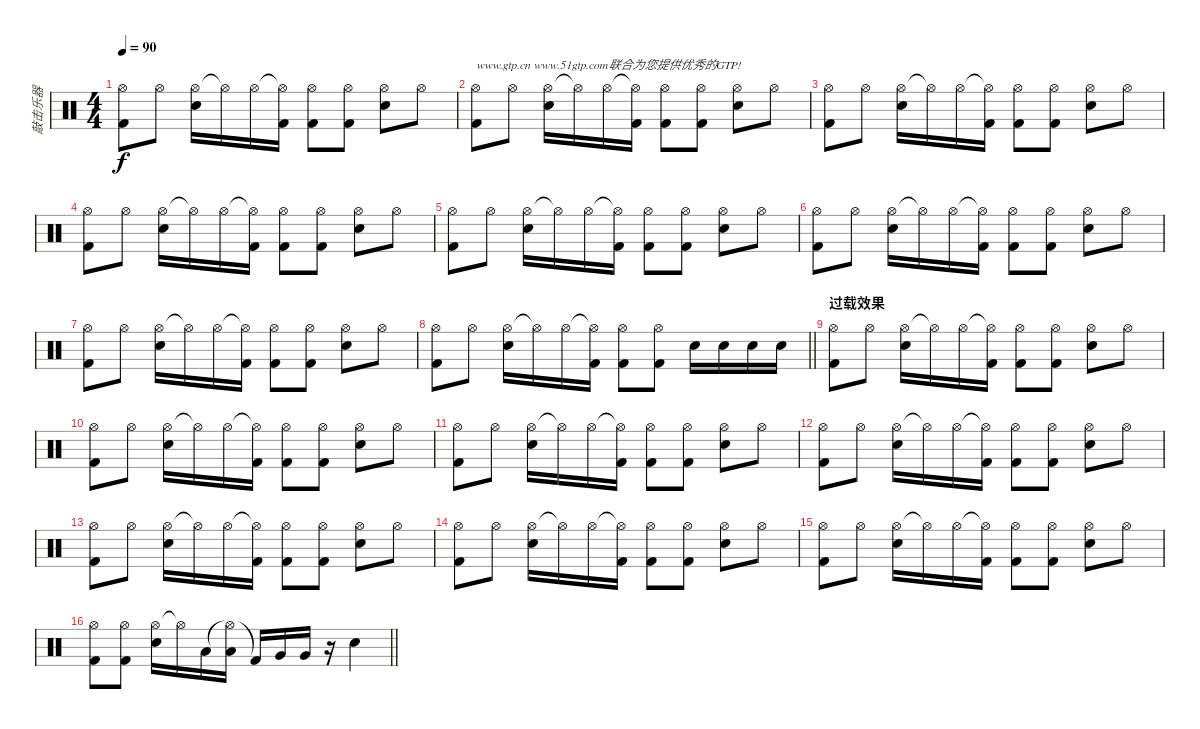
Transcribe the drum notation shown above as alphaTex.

\track ("敲击乐器" "敲击乐器") {instrument percussion}
\staff {score}
\articulation defaults
\ts (4 4)
\tempo 90
\clef neutral
\ks c
("Hi-Hat (open)" "Kick (hit) 2").8{dy f} "Hi-Hat (open)".8 ("Hi-Hat (open)" "Electric Snare (hit)").16 "Hi-Hat (open)"{t}.16 "Hi-Hat (open)".16 ("Hi-Hat (open)"{t} "Kick (hit) 2").16 ("Hi-Hat (open)" "Kick (hit) 2").8 ("Hi-Hat (open)" "Kick (hit) 2").8 ("Hi-Hat (open)" "Electric Snare (hit)").8 "Hi-Hat (open)".8 |
("Hi-Hat (open)" "Kick (hit) 2").8{txt "www.gtp.cn www.51gtp.com联合为您提供优秀的GTP!"} "Hi-Hat (open)".8 ("Hi-Hat (open)" "Electric Snare (hit)").16 "Hi-Hat (open)"{t}.16 "Hi-Hat (open)".16 ("Hi-Hat (open)"{t} "Kick (hit) 2").16 ("Hi-Hat (open)" "Kick (hit) 2").8 ("Hi-Hat (open)" "Kick (hit) 2").8 ("Hi-Hat (open)" "Electric Snare (hit)").8 "Hi-Hat (open)".8 |
("Hi-Hat (open)" "Kick (hit) 2").8 "Hi-Hat (open)".8 ("Hi-Hat (open)" "Electric Snare (hit)").16 "Hi-Hat (open)"{t}.16 "Hi-Hat (open)".16 ("Hi-Hat (open)"{t} "Kick (hit) 2").16 ("Hi-Hat (open)" "Kick (hit) 2").8 ("Hi-Hat (open)" "Kick (hit) 2").8 ("Hi-Hat (open)" "Electric Snare (hit)").8 "Hi-Hat (open)".8 |
("Hi-Hat (open)" "Kick (hit) 2").8 "Hi-Hat (open)".8 ("Hi-Hat (open)" "Electric Snare (hit)").16 "Hi-Hat (open)"{t}.16 "Hi-Hat (open)".16 ("Hi-Hat (open)"{t} "Kick (hit) 2").16 ("Hi-Hat (open)" "Kick (hit) 2").8 ("Hi-Hat (open)" "Kick (hit) 2").8 ("Hi-Hat (open)" "Electric Snare (hit)").8 "Hi-Hat (open)".8 |
("Hi-Hat (open)" "Kick (hit) 2").8 "Hi-Hat (open)".8 ("Hi-Hat (open)" "Electric Snare (hit)").16 "Hi-Hat (open)"{t}.16 "Hi-Hat (open)".16 ("Hi-Hat (open)"{t} "Kick (hit) 2").16 ("Hi-Hat (open)" "Kick (hit) 2").8 ("Hi-Hat (open)" "Kick (hit) 2").8 ("Hi-Hat (open)" "Electric Snare (hit)").8 "Hi-Hat (open)".8 |
("Hi-Hat (open)" "Kick (hit) 2").8 "Hi-Hat (open)".8 ("Hi-Hat (open)" "Electric Snare (hit)").16 "Hi-Hat (open)"{t}.16 "Hi-Hat (open)".16 ("Hi-Hat (open)"{t} "Kick (hit) 2").16 ("Hi-Hat (open)" "Kick (hit) 2").8 ("Hi-Hat (open)" "Kick (hit) 2").8 ("Hi-Hat (open)" "Electric Snare (hit)").8 "Hi-Hat (open)".8 |
("Hi-Hat (open)" "Kick (hit) 2").8 "Hi-Hat (open)".8 ("Hi-Hat (open)" "Electric Snare (hit)").16 "Hi-Hat (open)"{t}.16 "Hi-Hat (open)".16 ("Hi-Hat (open)"{t} "Kick (hit) 2").16 ("Hi-Hat (open)" "Kick (hit) 2").8 ("Hi-Hat (open)" "Kick (hit) 2").8 ("Hi-Hat (open)" "Electric Snare (hit)").8 "Hi-Hat (open)".8 |
\barLineRight lightlight
("Hi-Hat (open)" "Kick (hit) 2").8 "Hi-Hat (open)".8 ("Hi-Hat (open)" "Electric Snare (hit)").16 "Hi-Hat (open)"{t}.16 "Hi-Hat (open)".16 ("Hi-Hat (open)"{t} "Kick (hit) 2").16 ("Hi-Hat (open)" "Kick (hit) 2").8 ("Hi-Hat (open)" "Kick (hit) 2").8 "Electric Snare (hit)".16 "Electric Snare (hit)".16 "Electric Snare (hit)".16 "Electric Snare (hit)".16 |
\section ("" "过载效果")
("Hi-Hat (open)" "Kick (hit) 2").8 "Hi-Hat (open)".8 ("Hi-Hat (open)" "Electric Snare (hit)").16 "Hi-Hat (open)"{t}.16 "Hi-Hat (open)".16 ("Hi-Hat (open)"{t} "Kick (hit) 2").16 ("Hi-Hat (open)" "Kick (hit) 2").8 ("Hi-Hat (open)" "Kick (hit) 2").8 ("Hi-Hat (open)" "Electric Snare (hit)").8 "Hi-Hat (open)".8 |
("Hi-Hat (open)" "Kick (hit) 2").8 "Hi-Hat (open)".8 ("Hi-Hat (open)" "Electric Snare (hit)").16 "Hi-Hat (open)"{t}.16 "Hi-Hat (open)".16 ("Hi-Hat (open)"{t} "Kick (hit) 2").16 ("Hi-Hat (open)" "Kick (hit) 2").8 ("Hi-Hat (open)" "Kick (hit) 2").8 ("Hi-Hat (open)" "Electric Snare (hit)").8 "Hi-Hat (open)".8 |
("Hi-Hat (open)" "Kick (hit) 2").8 "Hi-Hat (open)".8 ("Hi-Hat (open)" "Electric Snare (hit)").16 "Hi-Hat (open)"{t}.16 "Hi-Hat (open)".16 ("Hi-Hat (open)"{t} "Kick (hit) 2").16 ("Hi-Hat (open)" "Kick (hit) 2").8 ("Hi-Hat (open)" "Kick (hit) 2").8 ("Hi-Hat (open)" "Electric Snare (hit)").8 "Hi-Hat (open)".8 |
("Hi-Hat (open)" "Kick (hit) 2").8 "Hi-Hat (open)".8 ("Hi-Hat (open)" "Electric Snare (hit)").16 "Hi-Hat (open)"{t}.16 "Hi-Hat (open)".16 ("Hi-Hat (open)"{t} "Kick (hit) 2").16 ("Hi-Hat (open)" "Kick (hit) 2").8 ("Hi-Hat (open)" "Kick (hit) 2").8 ("Hi-Hat (open)" "Electric Snare (hit)").8 "Hi-Hat (open)".8 |
("Hi-Hat (open)" "Kick (hit) 2").8 "Hi-Hat (open)".8 ("Hi-Hat (open)" "Electric Snare (hit)").16 "Hi-Hat (open)"{t}.16 "Hi-Hat (open)".16 ("Hi-Hat (open)"{t} "Kick (hit) 2").16 ("Hi-Hat (open)" "Kick (hit) 2").8 ("Hi-Hat (open)" "Kick (hit) 2").8 ("Hi-Hat (open)" "Electric Snare (hit)").8 "Hi-Hat (open)".8 |
("Hi-Hat (open)" "Kick (hit) 2").8 "Hi-Hat (open)".8 ("Hi-Hat (open)" "Electric Snare (hit)").16 "Hi-Hat (open)"{t}.16 "Hi-Hat (open)".16 ("Hi-Hat (open)"{t} "Kick (hit) 2").16 ("Hi-Hat (open)" "Kick (hit) 2").8 ("Hi-Hat (open)" "Kick (hit) 2").8 ("Hi-Hat (open)" "Electric Snare (hit)").8 "Hi-Hat (open)".8 |
("Hi-Hat (open)" "Kick (hit) 2").8 "Hi-Hat (open)".8 ("Hi-Hat (open)" "Electric Snare (hit)").16 "Hi-Hat (open)"{t}.16 "Hi-Hat (open)".16 ("Hi-Hat (open)"{t} "Kick (hit) 2").16 ("Hi-Hat (open)" "Kick (hit) 2").8 ("Hi-Hat (open)" "Kick (hit) 2").8 ("Hi-Hat (open)" "Electric Snare (hit)").8 "Hi-Hat (open)".8 |
\barLineRight lightlight
("Hi-Hat (open)" "Kick (hit) 2").8 ("Hi-Hat (open)" "Kick (hit) 2").8 ("Hi-Hat (open)" "Electric Snare (hit)").16 "Hi-Hat (open)"{t}.16 "Low Tom (hit)".16 ("Hi-Hat (open)"{t} "Low Tom (hit)").16 "Kick (hit) 2"{t}.16 "Very Low Tom (hit)".16 "Very Low Tom (hit)".16 r.16 "Electric Snare (hit)".4
